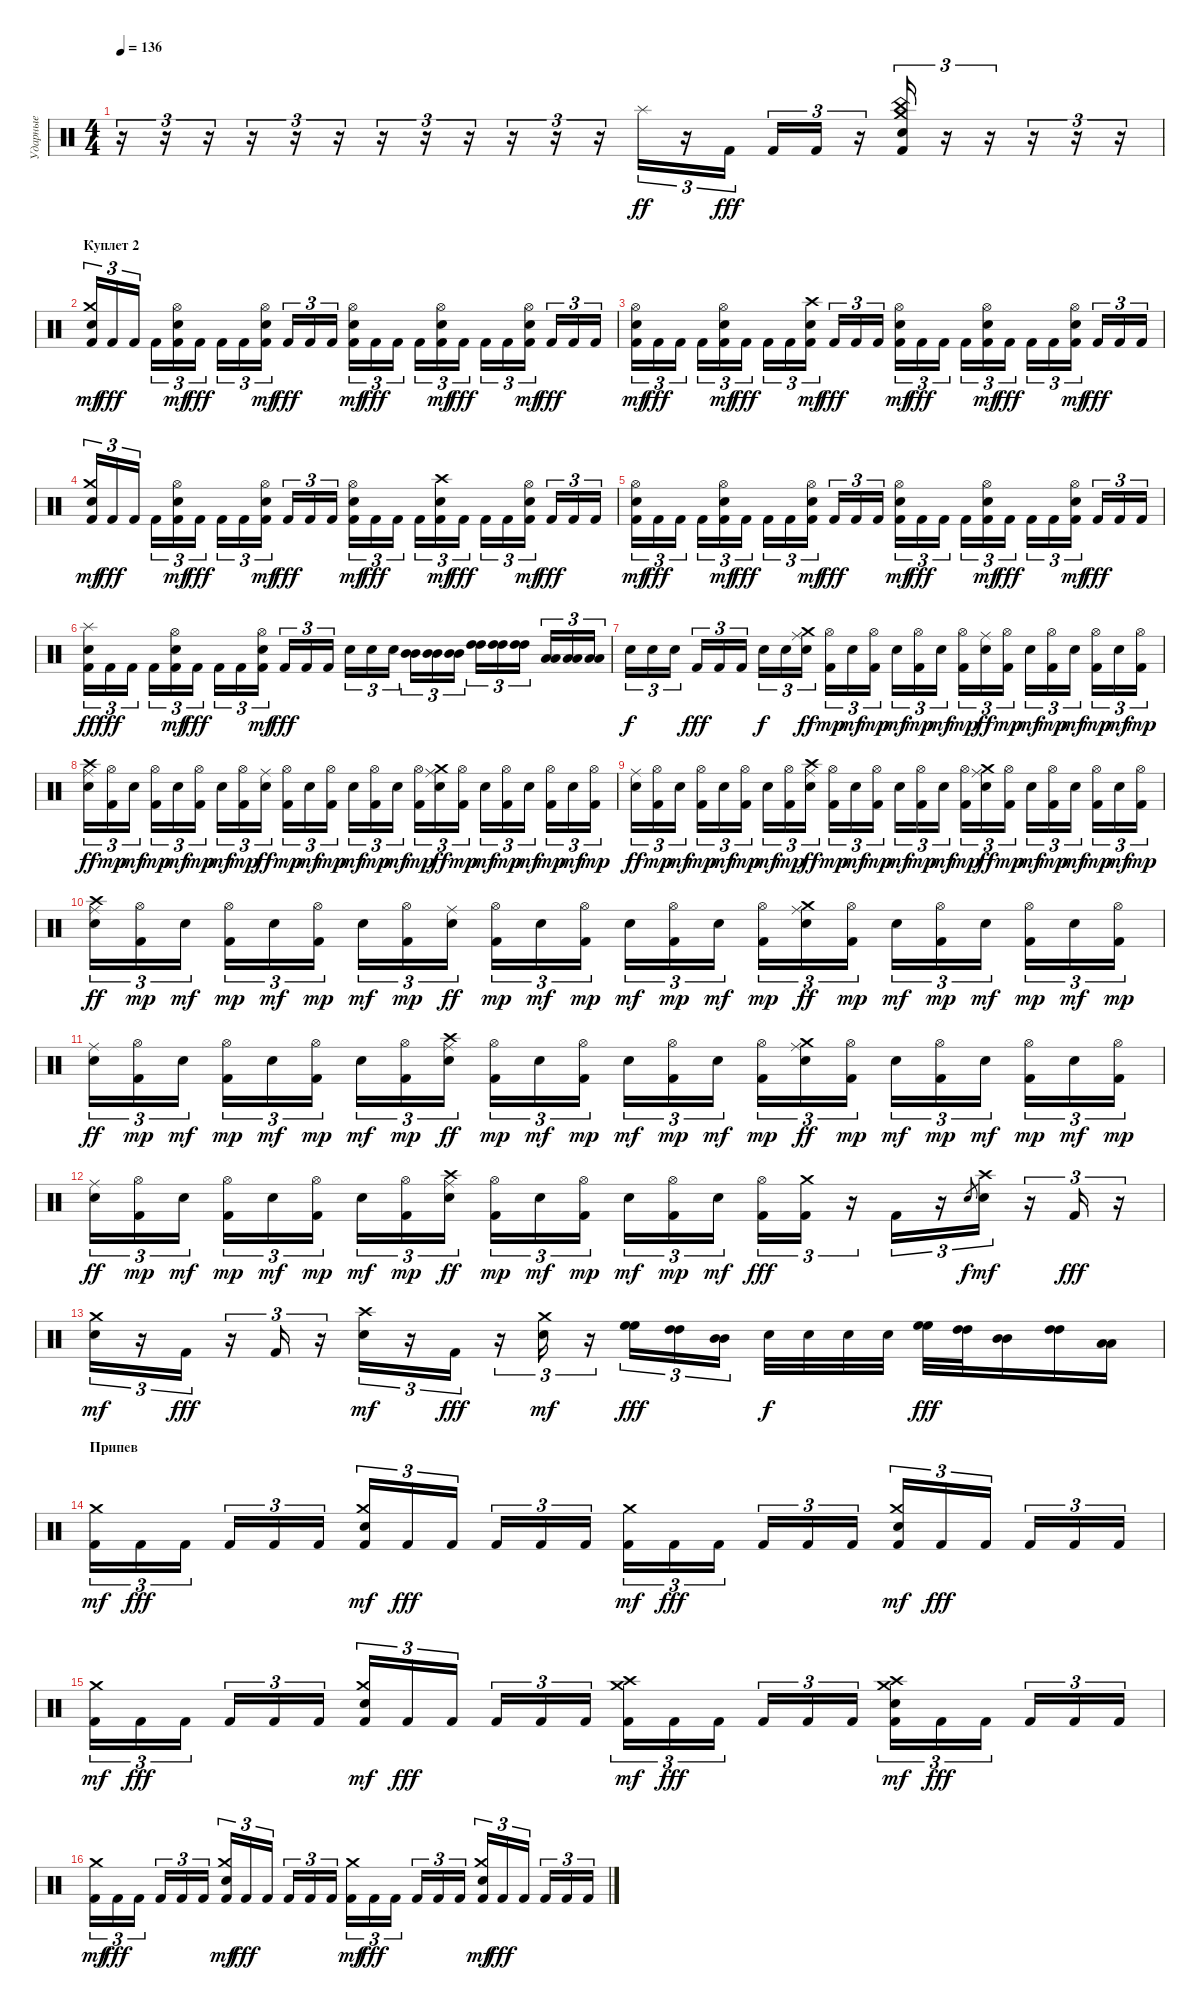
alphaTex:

\track ("Ударные" "Ударные") {instrument percussion}
\staff {score}
\articulation defaults
\ts (4 4)
\tempo 136
\clef neutral
\ks c
r.16{tu (3 2) dy fff} r.16{tu (3 2)} r.16{tu (3 2)} r.16{tu (3 2)} r.16{tu (3 2)} r.16{tu (3 2)} r.16{tu (3 2)} r.16{tu (3 2)} r.16{tu (3 2)} r.16{tu (3 2)} r.16{tu (3 2)} r.16{tu (3 2)} "Splash (hit)".16{tu (3 2) dy ff} r.16{tu (3 2)} "Kick (hit) 2".16{tu (3 2) dy fff} "Kick (hit) 2".16{tu (3 2)} "Kick (hit) 2".16{tu (3 2)} r.16{tu (3 2)} ("China (hit)" "Crash medium (hit)" "Electric Snare (hit)" "Kick (hit) 2").16{tu (3 2)} r.16{tu (3 2)} r.16{tu (3 2)} r.16{tu (3 2)} r.16{tu (3 2)} r.16{tu (3 2)} |
\section ("" "Куплет 2")
("Kick (hit) 2" "Electric Snare (hit)" "Crash medium (hit)").16{tu (3 2) dy mf} "Kick (hit) 2".16{tu (3 2) dy fff} "Kick (hit) 2".16{tu (3 2)} "Kick (hit) 2".16{tu (3 2)} ("Kick (hit) 2" "Electric Snare (hit)" "Hi-Hat (open)").16{tu (3 2) dy mf} "Kick (hit) 2".16{tu (3 2) dy fff} "Kick (hit) 2".16{tu (3 2)} "Kick (hit) 2".16{tu (3 2)} ("Kick (hit) 2" "Electric Snare (hit)" "Hi-Hat (open)").16{tu (3 2) dy mf} "Kick (hit) 2".16{tu (3 2) dy fff} "Kick (hit) 2".16{tu (3 2)} "Kick (hit) 2".16{tu (3 2)} ("Kick (hit) 2" "Electric Snare (hit)" "Hi-Hat (open)").16{tu (3 2) dy mf} "Kick (hit) 2".16{tu (3 2) dy fff} "Kick (hit) 2".16{tu (3 2)} "Kick (hit) 2".16{tu (3 2)} ("Kick (hit) 2" "Electric Snare (hit)" "Hi-Hat (open)").16{tu (3 2) dy mf} "Kick (hit) 2".16{tu (3 2) dy fff} "Kick (hit) 2".16{tu (3 2)} "Kick (hit) 2".16{tu (3 2)} ("Kick (hit) 2" "Electric Snare (hit)" "Hi-Hat (open)").16{tu (3 2) dy mf} "Kick (hit) 2".16{tu (3 2) dy fff} "Kick (hit) 2".16{tu (3 2)} "Kick (hit) 2".16{tu (3 2)} |
("Kick (hit) 2" "Electric Snare (hit)" "Hi-Hat (open)").16{tu (3 2) dy mf} "Kick (hit) 2".16{tu (3 2) dy fff} "Kick (hit) 2".16{tu (3 2)} "Kick (hit) 2".16{tu (3 2)} ("Kick (hit) 2" "Electric Snare (hit)" "Hi-Hat (open)").16{tu (3 2) dy mf} "Kick (hit) 2".16{tu (3 2) dy fff} "Kick (hit) 2".16{tu (3 2)} "Kick (hit) 2".16{tu (3 2)} ("Kick (hit) 2" "Electric Snare (hit)" "Crash high (hit)").16{tu (3 2) dy mf} "Kick (hit) 2".16{tu (3 2) dy fff} "Kick (hit) 2".16{tu (3 2)} "Kick (hit) 2".16{tu (3 2)} ("Kick (hit) 2" "Electric Snare (hit)" "Hi-Hat (open)").16{tu (3 2) dy mf} "Kick (hit) 2".16{tu (3 2) dy fff} "Kick (hit) 2".16{tu (3 2)} "Kick (hit) 2".16{tu (3 2)} ("Kick (hit) 2" "Electric Snare (hit)" "Hi-Hat (open)").16{tu (3 2) dy mf} "Kick (hit) 2".16{tu (3 2) dy fff} "Kick (hit) 2".16{tu (3 2)} "Kick (hit) 2".16{tu (3 2)} ("Kick (hit) 2" "Electric Snare (hit)" "Hi-Hat (open)").16{tu (3 2) dy mf} "Kick (hit) 2".16{tu (3 2) dy fff} "Kick (hit) 2".16{tu (3 2)} "Kick (hit) 2".16{tu (3 2)} |
("Kick (hit) 2" "Electric Snare (hit)" "Crash medium (hit)").16{tu (3 2) dy mf} "Kick (hit) 2".16{tu (3 2) dy fff} "Kick (hit) 2".16{tu (3 2)} "Kick (hit) 2".16{tu (3 2)} ("Kick (hit) 2" "Electric Snare (hit)" "Hi-Hat (open)").16{tu (3 2) dy mf} "Kick (hit) 2".16{tu (3 2) dy fff} "Kick (hit) 2".16{tu (3 2)} "Kick (hit) 2".16{tu (3 2)} ("Kick (hit) 2" "Electric Snare (hit)" "Hi-Hat (open)").16{tu (3 2) dy mf} "Kick (hit) 2".16{tu (3 2) dy fff} "Kick (hit) 2".16{tu (3 2)} "Kick (hit) 2".16{tu (3 2)} ("Kick (hit) 2" "Electric Snare (hit)" "Hi-Hat (open)").16{tu (3 2) dy mf} "Kick (hit) 2".16{tu (3 2) dy fff} "Kick (hit) 2".16{tu (3 2)} "Kick (hit) 2".16{tu (3 2)} ("Kick (hit) 2" "Electric Snare (hit)" "Crash high (hit)").16{tu (3 2) dy mf} "Kick (hit) 2".16{tu (3 2) dy fff} "Kick (hit) 2".16{tu (3 2)} "Kick (hit) 2".16{tu (3 2)} ("Kick (hit) 2" "Electric Snare (hit)" "Hi-Hat (open)").16{tu (3 2) dy mf} "Kick (hit) 2".16{tu (3 2) dy fff} "Kick (hit) 2".16{tu (3 2)} "Kick (hit) 2".16{tu (3 2)} |
("Kick (hit) 2" "Electric Snare (hit)" "Hi-Hat (open)").16{tu (3 2) dy mf} "Kick (hit) 2".16{tu (3 2) dy fff} "Kick (hit) 2".16{tu (3 2)} "Kick (hit) 2".16{tu (3 2)} ("Kick (hit) 2" "Electric Snare (hit)" "Hi-Hat (open)").16{tu (3 2) dy mf} "Kick (hit) 2".16{tu (3 2) dy fff} "Kick (hit) 2".16{tu (3 2)} "Kick (hit) 2".16{tu (3 2)} ("Kick (hit) 2" "Electric Snare (hit)" "Hi-Hat (open)").16{tu (3 2) dy mf} "Kick (hit) 2".16{tu (3 2) dy fff} "Kick (hit) 2".16{tu (3 2)} "Kick (hit) 2".16{tu (3 2)} ("Kick (hit) 2" "Electric Snare (hit)" "Hi-Hat (open)").16{tu (3 2) dy mf} "Kick (hit) 2".16{tu (3 2) dy fff} "Kick (hit) 2".16{tu (3 2)} "Kick (hit) 2".16{tu (3 2)} ("Kick (hit) 2" "Electric Snare (hit)" "Hi-Hat (open)").16{tu (3 2) dy mf} "Kick (hit) 2".16{tu (3 2) dy fff} "Kick (hit) 2".16{tu (3 2)} "Kick (hit) 2".16{tu (3 2)} ("Kick (hit) 2" "Electric Snare (hit)" "Hi-Hat (open)").16{tu (3 2) dy mf} "Kick (hit) 2".16{tu (3 2) dy fff} "Kick (hit) 2".16{tu (3 2)} "Kick (hit) 2".16{tu (3 2)} |
("Kick (hit) 2" "Electric Snare (hit)" "Splash (hit)").16{tu (3 2) dy ff} "Kick (hit) 2".16{tu (3 2) dy fff} "Kick (hit) 2".16{tu (3 2)} "Kick (hit) 2".16{tu (3 2)} ("Kick (hit) 2" "Electric Snare (hit)" "Hi-Hat (open)").16{tu (3 2) dy mf} "Kick (hit) 2".16{tu (3 2) dy fff} "Kick (hit) 2".16{tu (3 2)} "Kick (hit) 2".16{tu (3 2)} ("Kick (hit) 2" "Electric Snare (hit)" "Hi-Hat (open)").16{tu (3 2) dy mf} "Kick (hit) 2".16{tu (3 2) dy fff} "Kick (hit) 2".16{tu (3 2)} "Kick (hit) 2".16{tu (3 2)} "Electric Snare (hit)".16{tu (3 2)} "Electric Snare (hit)".16{tu (3 2)} "Electric Snare (hit)".16{tu (3 2)} ("Mid Tom (hit)" "Mid Tom (hit)").16{tu (3 2)} ("Mid Tom (hit)" "Mid Tom (hit)").16{tu (3 2)} ("Mid Tom (hit)" "Mid Tom (hit)").16{tu (3 2)} ("High Tom (hit)" "High Tom (hit)").16{tu (3 2)} ("High Tom (hit)" "High Tom (hit)").16{tu (3 2)} ("High Tom (hit)" "High Tom (hit)").16{tu (3 2)} ("Low Tom (hit)" "Low Tom (hit)").16{tu (3 2)} ("Low Tom (hit)" "Low Tom (hit)").16{tu (3 2)} ("Low Tom (hit)" "Low Tom (hit)").16{tu (3 2)} |
"Electric Snare (hit)".16{tu (3 2) dy f} "Electric Snare (hit)".16{tu (3 2)} "Electric Snare (hit)".16{tu (3 2)} "Kick (hit) 2".16{tu (3 2) dy fff} "Kick (hit) 2".16{tu (3 2)} "Kick (hit) 2".16{tu (3 2)} "Electric Snare (hit)".16{tu (3 2) dy f} "Electric Snare (hit)".16{tu (3 2)} ("Electric Snare (hit)" "Crash medium (hit)" "Ride (middle)").16{tu (3 2) dy ff} ("Kick (hit) 2" "Hi-Hat (open)").16{tu (3 2) dy mp} "Electric Snare (hit)".16{tu (3 2) dy mf} ("Kick (hit) 2" "Hi-Hat (open)").16{tu (3 2) dy mp} "Electric Snare (hit)".16{tu (3 2) dy mf} ("Kick (hit) 2" "Hi-Hat (open)").16{tu (3 2) dy mp} "Electric Snare (hit)".16{tu (3 2) dy mf} ("Kick (hit) 2" "Hi-Hat (open)").16{tu (3 2) dy mp} ("Electric Snare (hit)" "Ride (middle)").16{tu (3 2) dy ff} ("Kick (hit) 2" "Hi-Hat (open)").16{tu (3 2) dy mp} "Electric Snare (hit)".16{tu (3 2) dy mf} ("Kick (hit) 2" "Hi-Hat (open)").16{tu (3 2) dy mp} "Electric Snare (hit)".16{tu (3 2) dy mf} ("Kick (hit) 2" "Hi-Hat (open)").16{tu (3 2) dy mp} "Electric Snare (hit)".16{tu (3 2) dy mf} ("Kick (hit) 2" "Hi-Hat (open)").16{tu (3 2) dy mp} |
("Electric Snare (hit)" "Crash high (hit)" "Ride (middle)").16{tu (3 2) dy ff} ("Kick (hit) 2" "Hi-Hat (open)").16{tu (3 2) dy mp} "Electric Snare (hit)".16{tu (3 2) dy mf} ("Kick (hit) 2" "Hi-Hat (open)").16{tu (3 2) dy mp} "Electric Snare (hit)".16{tu (3 2) dy mf} ("Kick (hit) 2" "Hi-Hat (open)").16{tu (3 2) dy mp} "Electric Snare (hit)".16{tu (3 2) dy mf} ("Kick (hit) 2" "Hi-Hat (open)").16{tu (3 2) dy mp} ("Electric Snare (hit)" "Ride (middle)").16{tu (3 2) dy ff} ("Kick (hit) 2" "Hi-Hat (open)").16{tu (3 2) dy mp} "Electric Snare (hit)".16{tu (3 2) dy mf} ("Kick (hit) 2" "Hi-Hat (open)").16{tu (3 2) dy mp} "Electric Snare (hit)".16{tu (3 2) dy mf} ("Kick (hit) 2" "Hi-Hat (open)").16{tu (3 2) dy mp} "Electric Snare (hit)".16{tu (3 2) dy mf} ("Kick (hit) 2" "Hi-Hat (open)").16{tu (3 2) dy mp} ("Electric Snare (hit)" "Crash medium (hit)" "Ride (middle)").16{tu (3 2) dy ff} ("Kick (hit) 2" "Hi-Hat (open)").16{tu (3 2) dy mp} "Electric Snare (hit)".16{tu (3 2) dy mf} ("Kick (hit) 2" "Hi-Hat (open)").16{tu (3 2) dy mp} "Electric Snare (hit)".16{tu (3 2) dy mf} ("Kick (hit) 2" "Hi-Hat (open)").16{tu (3 2) dy mp} "Electric Snare (hit)".16{tu (3 2) dy mf} ("Kick (hit) 2" "Hi-Hat (open)").16{tu (3 2) dy mp} |
("Electric Snare (hit)" "Ride (middle)").16{tu (3 2) dy ff} ("Kick (hit) 2" "Hi-Hat (open)").16{tu (3 2) dy mp} "Electric Snare (hit)".16{tu (3 2) dy mf} ("Kick (hit) 2" "Hi-Hat (open)").16{tu (3 2) dy mp} "Electric Snare (hit)".16{tu (3 2) dy mf} ("Kick (hit) 2" "Hi-Hat (open)").16{tu (3 2) dy mp} "Electric Snare (hit)".16{tu (3 2) dy mf} ("Kick (hit) 2" "Hi-Hat (open)").16{tu (3 2) dy mp} ("Electric Snare (hit)" "Crash high (hit)" "Ride (middle)").16{tu (3 2) dy ff} ("Kick (hit) 2" "Hi-Hat (open)").16{tu (3 2) dy mp} "Electric Snare (hit)".16{tu (3 2) dy mf} ("Kick (hit) 2" "Hi-Hat (open)").16{tu (3 2) dy mp} "Electric Snare (hit)".16{tu (3 2) dy mf} ("Kick (hit) 2" "Hi-Hat (open)").16{tu (3 2) dy mp} "Electric Snare (hit)".16{tu (3 2) dy mf} ("Kick (hit) 2" "Hi-Hat (open)").16{tu (3 2) dy mp} ("Electric Snare (hit)" "Crash medium (hit)" "Ride (middle)").16{tu (3 2) dy ff} ("Kick (hit) 2" "Hi-Hat (open)").16{tu (3 2) dy mp} "Electric Snare (hit)".16{tu (3 2) dy mf} ("Kick (hit) 2" "Hi-Hat (open)").16{tu (3 2) dy mp} "Electric Snare (hit)".16{tu (3 2) dy mf} ("Kick (hit) 2" "Hi-Hat (open)").16{tu (3 2) dy mp} "Electric Snare (hit)".16{tu (3 2) dy mf} ("Kick (hit) 2" "Hi-Hat (open)").16{tu (3 2) dy mp} |
("Electric Snare (hit)" "Crash high (hit)" "Ride (middle)").16{tu (3 2) dy ff} ("Kick (hit) 2" "Hi-Hat (open)").16{tu (3 2) dy mp} "Electric Snare (hit)".16{tu (3 2) dy mf} ("Kick (hit) 2" "Hi-Hat (open)").16{tu (3 2) dy mp} "Electric Snare (hit)".16{tu (3 2) dy mf} ("Kick (hit) 2" "Hi-Hat (open)").16{tu (3 2) dy mp} "Electric Snare (hit)".16{tu (3 2) dy mf} ("Kick (hit) 2" "Hi-Hat (open)").16{tu (3 2) dy mp} ("Electric Snare (hit)" "Ride (middle)").16{tu (3 2) dy ff} ("Kick (hit) 2" "Hi-Hat (open)").16{tu (3 2) dy mp} "Electric Snare (hit)".16{tu (3 2) dy mf} ("Kick (hit) 2" "Hi-Hat (open)").16{tu (3 2) dy mp} "Electric Snare (hit)".16{tu (3 2) dy mf} ("Kick (hit) 2" "Hi-Hat (open)").16{tu (3 2) dy mp} "Electric Snare (hit)".16{tu (3 2) dy mf} ("Kick (hit) 2" "Hi-Hat (open)").16{tu (3 2) dy mp} ("Electric Snare (hit)" "Crash medium (hit)" "Ride (middle)").16{tu (3 2) dy ff} ("Kick (hit) 2" "Hi-Hat (open)").16{tu (3 2) dy mp} "Electric Snare (hit)".16{tu (3 2) dy mf} ("Kick (hit) 2" "Hi-Hat (open)").16{tu (3 2) dy mp} "Electric Snare (hit)".16{tu (3 2) dy mf} ("Kick (hit) 2" "Hi-Hat (open)").16{tu (3 2) dy mp} "Electric Snare (hit)".16{tu (3 2) dy mf} ("Kick (hit) 2" "Hi-Hat (open)").16{tu (3 2) dy mp} |
("Electric Snare (hit)" "Ride (middle)").16{tu (3 2) dy ff} ("Kick (hit) 2" "Hi-Hat (open)").16{tu (3 2) dy mp} "Electric Snare (hit)".16{tu (3 2) dy mf} ("Kick (hit) 2" "Hi-Hat (open)").16{tu (3 2) dy mp} "Electric Snare (hit)".16{tu (3 2) dy mf} ("Kick (hit) 2" "Hi-Hat (open)").16{tu (3 2) dy mp} "Electric Snare (hit)".16{tu (3 2) dy mf} ("Kick (hit) 2" "Hi-Hat (open)").16{tu (3 2) dy mp} ("Electric Snare (hit)" "Crash high (hit)" "Ride (middle)").16{tu (3 2) dy ff} ("Kick (hit) 2" "Hi-Hat (open)").16{tu (3 2) dy mp} "Electric Snare (hit)".16{tu (3 2) dy mf} ("Kick (hit) 2" "Hi-Hat (open)").16{tu (3 2) dy mp} "Electric Snare (hit)".16{tu (3 2) dy mf} ("Kick (hit) 2" "Hi-Hat (open)").16{tu (3 2) dy mp} "Electric Snare (hit)".16{tu (3 2) dy mf} ("Kick (hit) 2" "Hi-Hat (open)").16{tu (3 2) dy mp} ("Electric Snare (hit)" "Crash medium (hit)" "Ride (middle)").16{tu (3 2) dy ff} ("Kick (hit) 2" "Hi-Hat (open)").16{tu (3 2) dy mp} "Electric Snare (hit)".16{tu (3 2) dy mf} ("Kick (hit) 2" "Hi-Hat (open)").16{tu (3 2) dy mp} "Electric Snare (hit)".16{tu (3 2) dy mf} ("Kick (hit) 2" "Hi-Hat (open)").16{tu (3 2) dy mp} "Electric Snare (hit)".16{tu (3 2) dy mf} ("Kick (hit) 2" "Hi-Hat (open)").16{tu (3 2) dy mp} |
("Electric Snare (hit)" "Ride (middle)").16{tu (3 2) dy ff} ("Kick (hit) 2" "Hi-Hat (open)").16{tu (3 2) dy mp} "Electric Snare (hit)".16{tu (3 2) dy mf} ("Kick (hit) 2" "Hi-Hat (open)").16{tu (3 2) dy mp} "Electric Snare (hit)".16{tu (3 2) dy mf} ("Kick (hit) 2" "Hi-Hat (open)").16{tu (3 2) dy mp} "Electric Snare (hit)".16{tu (3 2) dy mf} ("Kick (hit) 2" "Hi-Hat (open)").16{tu (3 2) dy mp} ("Electric Snare (hit)" "Crash high (hit)" "Ride (middle)").16{tu (3 2) dy ff} ("Kick (hit) 2" "Hi-Hat (open)").16{tu (3 2) dy mp} "Electric Snare (hit)".16{tu (3 2) dy mf} ("Kick (hit) 2" "Hi-Hat (open)").16{tu (3 2) dy mp} "Electric Snare (hit)".16{tu (3 2) dy mf} ("Kick (hit) 2" "Hi-Hat (open)").16{tu (3 2) dy mp} "Electric Snare (hit)".16{tu (3 2) dy mf} ("Hi-Hat (open)" "Kick (hit) 2").16{tu (3 2) dy fff} ("Crash medium (hit)" "Kick (hit) 2").16{tu (3 2)} r.16{tu (3 2)} "Kick (hit) 2".16{tu (3 2)} r.16{tu (3 2)} "Electric Snare (hit)".8{gr dy f} ("Crash high (hit)" "Electric Snare (hit)").16{tu (3 2) dy mf} r.16{tu (3 2)} "Kick (hit) 2".16{tu (3 2) dy fff} r.16{tu (3 2)} |
("Crash medium (hit)" "Electric Snare (hit)").16{tu (3 2) dy mf} r.16{tu (3 2)} "Kick (hit) 2".16{tu (3 2) dy fff} r.16{tu (3 2)} "Kick (hit) 2".16{tu (3 2)} r.16{tu (3 2)} ("Crash high (hit)" "Electric Snare (hit)").16{tu (3 2) dy mf} r.16{tu (3 2)} "Kick (hit) 2".16{tu (3 2) dy fff} r.16{tu (3 2)} ("Crash medium (hit)" "Electric Snare (hit)").16{tu (3 2) dy mf} r.16{tu (3 2)} ("High Floor Tom (hit)" "High Floor Tom (hit)").16{tu (3 2) dy fff} ("High Tom (hit)" "High Tom (hit)").16{tu (3 2)} ("Mid Tom (hit)" "Mid Tom (hit)").16{tu (3 2)} "Electric Snare (hit)".32{dy f} "Electric Snare (hit)".32 "Electric Snare (hit)".32 "Electric Snare (hit)".32 ("High Floor Tom (hit)" "High Floor Tom (hit)").32{dy fff} ("High Tom (hit)" "High Tom (hit)").32 ("Mid Tom (hit)" "Mid Tom (hit)").16 ("High Tom (hit)" "High Tom (hit)").16 ("Low Tom (hit)" "Low Tom (hit)").16 |
\section ("" "Припев")
("Kick (hit) 2" "Crash medium (hit)").16{tu (3 2) dy mf} "Kick (hit) 2".16{tu (3 2) dy fff} "Kick (hit) 2".16{tu (3 2)} "Kick (hit) 2".16{tu (3 2)} "Kick (hit) 2".16{tu (3 2)} "Kick (hit) 2".16{tu (3 2)} ("Kick (hit) 2" "Crash medium (hit)" "Electric Snare (hit)").16{tu (3 2) dy mf} "Kick (hit) 2".16{tu (3 2) dy fff} "Kick (hit) 2".16{tu (3 2)} "Kick (hit) 2".16{tu (3 2)} "Kick (hit) 2".16{tu (3 2)} "Kick (hit) 2".16{tu (3 2)} ("Kick (hit) 2" "Crash medium (hit)").16{tu (3 2) dy mf} "Kick (hit) 2".16{tu (3 2) dy fff} "Kick (hit) 2".16{tu (3 2)} "Kick (hit) 2".16{tu (3 2)} "Kick (hit) 2".16{tu (3 2)} "Kick (hit) 2".16{tu (3 2)} ("Kick (hit) 2" "Crash medium (hit)" "Electric Snare (hit)").16{tu (3 2) dy mf} "Kick (hit) 2".16{tu (3 2) dy fff} "Kick (hit) 2".16{tu (3 2)} "Kick (hit) 2".16{tu (3 2)} "Kick (hit) 2".16{tu (3 2)} "Kick (hit) 2".16{tu (3 2)} |
("Kick (hit) 2" "Crash medium (hit)").16{tu (3 2) dy mf} "Kick (hit) 2".16{tu (3 2) dy fff} "Kick (hit) 2".16{tu (3 2)} "Kick (hit) 2".16{tu (3 2)} "Kick (hit) 2".16{tu (3 2)} "Kick (hit) 2".16{tu (3 2)} ("Kick (hit) 2" "Crash medium (hit)" "Electric Snare (hit)").16{tu (3 2) dy mf} "Kick (hit) 2".16{tu (3 2) dy fff} "Kick (hit) 2".16{tu (3 2)} "Kick (hit) 2".16{tu (3 2)} "Kick (hit) 2".16{tu (3 2)} "Kick (hit) 2".16{tu (3 2)} ("Kick (hit) 2" "Crash medium (hit)" "Crash high (hit)").16{tu (3 2) dy mf} "Kick (hit) 2".16{tu (3 2) dy fff} "Kick (hit) 2".16{tu (3 2)} "Kick (hit) 2".16{tu (3 2)} "Kick (hit) 2".16{tu (3 2)} "Kick (hit) 2".16{tu (3 2)} ("Kick (hit) 2" "Crash medium (hit)" "Electric Snare (hit)" "Crash high (hit)").16{tu (3 2) dy mf} "Kick (hit) 2".16{tu (3 2) dy fff} "Kick (hit) 2".16{tu (3 2)} "Kick (hit) 2".16{tu (3 2)} "Kick (hit) 2".16{tu (3 2)} "Kick (hit) 2".16{tu (3 2)} |
("Kick (hit) 2" "Crash medium (hit)").16{tu (3 2) dy mf} "Kick (hit) 2".16{tu (3 2) dy fff} "Kick (hit) 2".16{tu (3 2)} "Kick (hit) 2".16{tu (3 2)} "Kick (hit) 2".16{tu (3 2)} "Kick (hit) 2".16{tu (3 2)} ("Kick (hit) 2" "Crash medium (hit)" "Electric Snare (hit)").16{tu (3 2) dy mf} "Kick (hit) 2".16{tu (3 2) dy fff} "Kick (hit) 2".16{tu (3 2)} "Kick (hit) 2".16{tu (3 2)} "Kick (hit) 2".16{tu (3 2)} "Kick (hit) 2".16{tu (3 2)} ("Kick (hit) 2" "Crash medium (hit)").16{tu (3 2) dy mf} "Kick (hit) 2".16{tu (3 2) dy fff} "Kick (hit) 2".16{tu (3 2)} "Kick (hit) 2".16{tu (3 2)} "Kick (hit) 2".16{tu (3 2)} "Kick (hit) 2".16{tu (3 2)} ("Kick (hit) 2" "Crash medium (hit)" "Electric Snare (hit)").16{tu (3 2) dy mf} "Kick (hit) 2".16{tu (3 2) dy fff} "Kick (hit) 2".16{tu (3 2)} "Kick (hit) 2".16{tu (3 2)} "Kick (hit) 2".16{tu (3 2)} "Kick (hit) 2".16{tu (3 2)}
